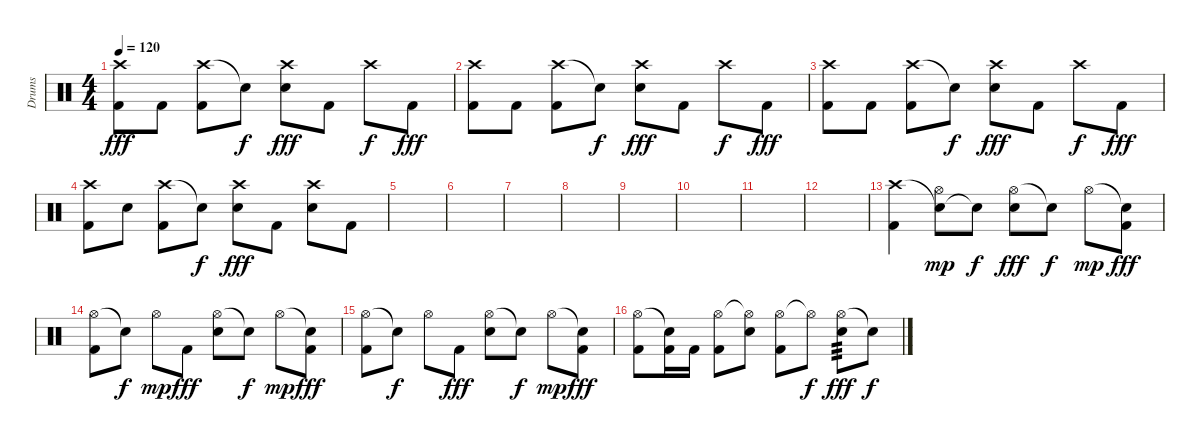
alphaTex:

\track ("Drums" "Drums") {instrument percussion}
\staff {score}
\articulation defaults
\ts (4 4)
\tempo 120
\clef neutral
\ks c
("Crash high (hit)" "Kick (hit) 2").8{dy fff} "Kick (hit) 2".8 ("Crash high (hit)" "Kick (hit) 2").8 "Electric Snare (hit)"{t}.8{dy f} ("Crash high (hit)" "Electric Snare (hit)").8{dy fff} "Kick (hit) 2".8 "Crash high (hit)".8{dy f} "Kick (hit) 2".8{dy fff} |
("Crash high (hit)" "Kick (hit) 2").8 "Kick (hit) 2".8 ("Crash high (hit)" "Kick (hit) 2").8 "Electric Snare (hit)"{t}.8{dy f} ("Crash high (hit)" "Electric Snare (hit)").8{dy fff} "Kick (hit) 2".8 "Crash high (hit)".8{dy f} "Kick (hit) 2".8{dy fff} |
("Crash high (hit)" "Kick (hit) 2").8 "Kick (hit) 2".8 ("Crash high (hit)" "Kick (hit) 2").8 "Electric Snare (hit)"{t}.8{dy f} ("Crash high (hit)" "Electric Snare (hit)").8{dy fff} "Kick (hit) 2".8 "Crash high (hit)".8{dy f} "Kick (hit) 2".8{dy fff} |
("Crash high (hit)" "Kick (hit) 2").8 "Electric Snare (hit)".8 ("Crash high (hit)" "Kick (hit) 2").8 "Electric Snare (hit)"{t}.8{dy f} ("Crash high (hit)" "Electric Snare (hit)").8{dy fff} "Kick (hit) 2".8 ("Crash high (hit)" "Electric Snare (hit)").8 "Kick (hit) 2".8 |
|
|
|
|
|
|
|
|
("Crash high (hit)" "Kick (hit) 2").4 ("Snare (hit)"{t} "Hi-Hat (open)").8{dy mp} "Snare (hit)"{t}.8{dy f} ("Hi-Hat (open)" "Electric Snare (hit)").8{dy fff} "Snare (hit)"{t}.8{dy f} "Hi-Hat (open)".8{dy mp} ("Snare (hit)"{t} "Kick (hit) 2").8{dy fff} |
("Hi-Hat (open)" "Kick (hit) 2").8 "Snare (hit)"{t}.8{dy f} "Hi-Hat (open)".8{dy mp} "Kick (hit) 2".8{dy fff} ("Hi-Hat (open)" "Electric Snare (hit)").8 "Snare (hit)"{t}.8{dy f} "Hi-Hat (open)".8{dy mp} ("Snare (hit)"{t} "Kick (hit) 2").8{dy fff} |
("Hi-Hat (open)" "Kick (hit) 2").8 "Snare (hit)"{t}.8{dy f} "Hi-Hat (open)".8 "Kick (hit) 2".8{dy fff} ("Hi-Hat (open)" "Electric Snare (hit)").8 "Snare (hit)"{t}.8{dy f} "Hi-Hat (open)".8{dy mp} ("Snare (hit)"{t} "Kick (hit) 2").8{dy fff} |
("Hi-Hat (open)" "Kick (hit) 2").8 ("Snare (hit)"{t} "Kick (hit) 2").16 "Kick (hit) 2".16 ("Hi-Hat (open)" "Kick (hit) 2").8 ("Hi-Hat (open)"{t} "Electric Snare (hit)").8 ("Hi-Hat (open)" "Kick (hit) 2").8 "Hi-Hat (open)"{t}.8{dy f} ("Hi-Hat (open)" "Electric Snare (hit)").8{tp 3 dy fff} "Snare (hit)"{t}.8{dy f}
